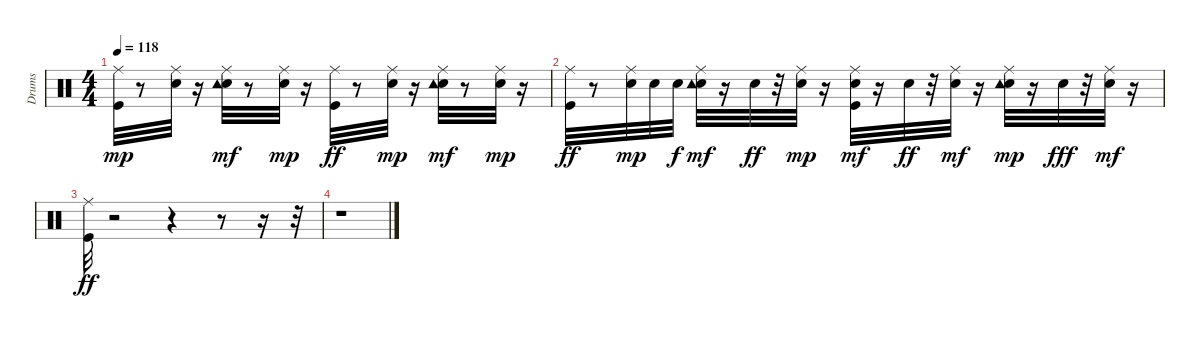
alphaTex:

\track ("Drums" "Drums") {instrument percussion}
\staff {score}
\articulation defaults
\ts (4 4)
\tempo 118
\clef neutral
\ks c
("Kick (hit)" "Ride (middle)").32{dy mp} r.8 ("Electric Snare (hit)" "Ride (middle)").32 r.16 ("Electric Snare (hit)" "Ride (middle)" "Tambourine (hit)").32{dy mf} r.8 ("Electric Snare (hit)" "Ride (middle)").32{dy mp} r.16 ("Ride (middle)" "Kick (hit)").32{dy ff} r.8 ("Electric Snare (hit)" "Ride (middle)").32{dy mp} r.16 ("Electric Snare (hit)" "Ride (middle)" "Tambourine (hit)").32{dy mf} r.8 ("Electric Snare (hit)" "Ride (middle)").32{dy mp} r.16 |
("Ride (middle)" "Kick (hit)").32{dy ff} r.8 ("Electric Snare (hit)" "Ride (middle)").32{dy mp} "Electric Snare (hit)".32 "Electric Snare (hit)".32{dy f} ("Electric Snare (hit)" "Ride (middle)" "Tambourine (hit)").32{dy mf} r.16 "Electric Snare (hit)".32{dy ff} r.32 ("Electric Snare (hit)" "Ride (middle)").32{dy mp} r.16 ("Electric Snare (hit)" "Kick (hit)" "Ride (middle)").32{dy mf} r.16 "Electric Snare (hit)".32{dy ff} r.32 ("Electric Snare (hit)" "Ride (middle)").32{dy mf} r.16 ("Electric Snare (hit)" "Ride (middle)" "Tambourine (hit)").32{dy mp} r.16 "Electric Snare (hit)".32{dy fff} r.32 ("Electric Snare (hit)" "Ride (middle)").32{dy mf} r.16 |
("Ride (middle)" "Kick (hit)").32{dy ff} r.2 r.4 r.8 r.16 r.32 |
r.1
